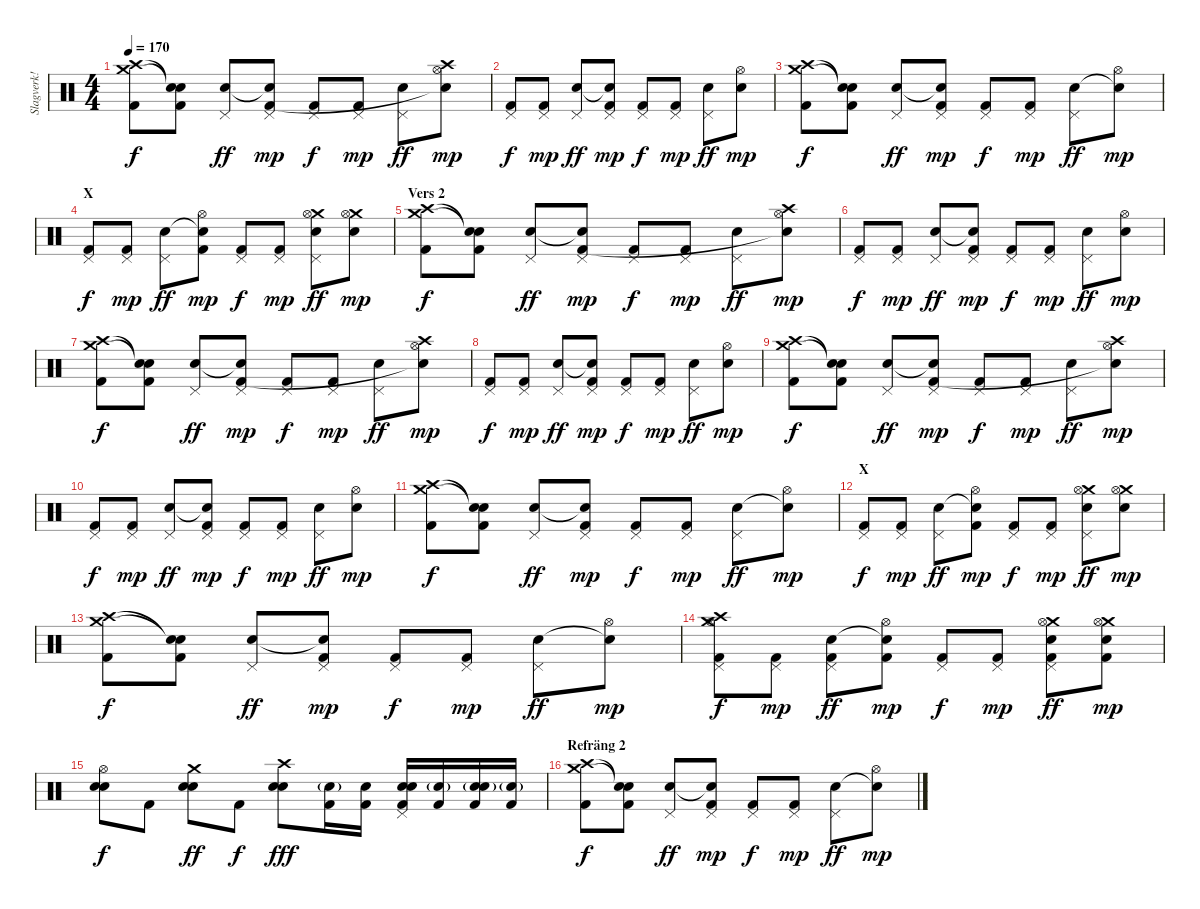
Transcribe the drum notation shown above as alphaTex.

\track ("Slagverk!" "Slagverk!") {instrument percussion}
\staff {score}
\articulation defaults
\ts (4 4)
\tempo 170
\clef neutral
\ks c
("Crash medium (hit)" "Crash high (hit)" "Kick (hit) 2").8{dy f} ("Snare (hit)"{t} "Snare (hit)"{t} "Kick (hit) 2").8 ("Pedal Hi-Hat (hit)" "Electric Snare (hit)").8{dy ff} ("Pedal Hi-Hat (hit)" "Snare (hit)"{t} "Kick (hit) 2").8{dy mp} ("Pedal Hi-Hat (hit)" "Kick (hit) 2").8{dy f} ("Pedal Hi-Hat (hit)" "Kick (hit) 2").8{dy mp} ("Pedal Hi-Hat (hit)" "Electric Snare (hit)").8{dy ff} ("Crash high (hit)" "Hi-Hat (open)" "Snare (hit)"{t}).8{dy mp} |
("Pedal Hi-Hat (hit)" "Kick (hit) 2").8{dy f} ("Pedal Hi-Hat (hit)" "Kick (hit) 2").8{dy mp} ("Pedal Hi-Hat (hit)" "Electric Snare (hit)").8{dy ff} ("Pedal Hi-Hat (hit)" "Snare (hit)"{t} "Kick (hit) 2").8{dy mp} ("Pedal Hi-Hat (hit)" "Kick (hit) 2").8{dy f} ("Pedal Hi-Hat (hit)" "Kick (hit) 2").8{dy mp} ("Pedal Hi-Hat (hit)" "Electric Snare (hit)").8{dy ff} ("Hi-Hat (open)" "Electric Snare (hit)").8{dy mp} |
("Crash medium (hit)" "Crash high (hit)" "Kick (hit) 2").8{dy f} ("Snare (hit)"{t} "Snare (hit)"{t} "Kick (hit) 2").8 ("Pedal Hi-Hat (hit)" "Electric Snare (hit)").8{dy ff} ("Pedal Hi-Hat (hit)" "Snare (hit)"{t} "Kick (hit) 2").8{dy mp} ("Pedal Hi-Hat (hit)" "Kick (hit) 2").8{dy f} ("Pedal Hi-Hat (hit)" "Kick (hit) 2").8{dy mp} ("Pedal Hi-Hat (hit)" "Electric Snare (hit)").8{dy ff} ("Hi-Hat (open)" "Snare (hit)"{t}).8{dy mp} |
\section ("" "X")
("Pedal Hi-Hat (hit)" "Kick (hit) 2").8{dy f} ("Pedal Hi-Hat (hit)" "Kick (hit) 2").8{dy mp} ("Pedal Hi-Hat (hit)" "Electric Snare (hit)").8{dy ff} ("Hi-Hat (open)" "Snare (hit)"{t} "Kick (hit) 2").8{dy mp} ("Pedal Hi-Hat (hit)" "Kick (hit) 2").8{dy f} ("Pedal Hi-Hat (hit)" "Kick (hit) 2").8{dy mp} ("Crash medium (hit)" "Hi-Hat (open)" "Pedal Hi-Hat (hit)" "Electric Snare (hit)").8{dy ff} ("Crash medium (hit)" "Hi-Hat (open)" "Electric Snare (hit)").8{dy mp} |
\section ("" "Vers 2")
("Crash medium (hit)" "Crash high (hit)" "Kick (hit) 2").8{dy f} ("Snare (hit)"{t} "Snare (hit)"{t} "Kick (hit) 2").8 ("Pedal Hi-Hat (hit)" "Electric Snare (hit)").8{dy ff} ("Pedal Hi-Hat (hit)" "Snare (hit)"{t} "Kick (hit) 2").8{dy mp} ("Pedal Hi-Hat (hit)" "Kick (hit) 2").8{dy f} ("Pedal Hi-Hat (hit)" "Kick (hit) 2").8{dy mp} ("Pedal Hi-Hat (hit)" "Electric Snare (hit)").8{dy ff} ("Crash high (hit)" "Hi-Hat (open)" "Snare (hit)"{t}).8{dy mp} |
("Pedal Hi-Hat (hit)" "Kick (hit) 2").8{dy f} ("Pedal Hi-Hat (hit)" "Kick (hit) 2").8{dy mp} ("Pedal Hi-Hat (hit)" "Electric Snare (hit)").8{dy ff} ("Pedal Hi-Hat (hit)" "Snare (hit)"{t} "Kick (hit) 2").8{dy mp} ("Pedal Hi-Hat (hit)" "Kick (hit) 2").8{dy f} ("Pedal Hi-Hat (hit)" "Kick (hit) 2").8{dy mp} ("Pedal Hi-Hat (hit)" "Electric Snare (hit)").8{dy ff} ("Hi-Hat (open)" "Electric Snare (hit)").8{dy mp} |
("Crash medium (hit)" "Crash high (hit)" "Kick (hit) 2").8{dy f} ("Snare (hit)"{t} "Snare (hit)"{t} "Kick (hit) 2").8 ("Pedal Hi-Hat (hit)" "Electric Snare (hit)").8{dy ff} ("Pedal Hi-Hat (hit)" "Snare (hit)"{t} "Kick (hit) 2").8{dy mp} ("Pedal Hi-Hat (hit)" "Kick (hit) 2").8{dy f} ("Pedal Hi-Hat (hit)" "Kick (hit) 2").8{dy mp} ("Pedal Hi-Hat (hit)" "Electric Snare (hit)").8{dy ff} ("Crash high (hit)" "Hi-Hat (open)" "Snare (hit)"{t}).8{dy mp} |
("Pedal Hi-Hat (hit)" "Kick (hit) 2").8{dy f} ("Pedal Hi-Hat (hit)" "Kick (hit) 2").8{dy mp} ("Pedal Hi-Hat (hit)" "Electric Snare (hit)").8{dy ff} ("Pedal Hi-Hat (hit)" "Snare (hit)"{t} "Kick (hit) 2").8{dy mp} ("Pedal Hi-Hat (hit)" "Kick (hit) 2").8{dy f} ("Pedal Hi-Hat (hit)" "Kick (hit) 2").8{dy mp} ("Pedal Hi-Hat (hit)" "Electric Snare (hit)").8{dy ff} ("Hi-Hat (open)" "Electric Snare (hit)").8{dy mp} |
("Crash medium (hit)" "Crash high (hit)" "Kick (hit) 2").8{dy f} ("Snare (hit)"{t} "Snare (hit)"{t} "Kick (hit) 2").8 ("Pedal Hi-Hat (hit)" "Electric Snare (hit)").8{dy ff} ("Pedal Hi-Hat (hit)" "Snare (hit)"{t} "Kick (hit) 2").8{dy mp} ("Pedal Hi-Hat (hit)" "Kick (hit) 2").8{dy f} ("Pedal Hi-Hat (hit)" "Kick (hit) 2").8{dy mp} ("Pedal Hi-Hat (hit)" "Electric Snare (hit)").8{dy ff} ("Crash high (hit)" "Hi-Hat (open)" "Snare (hit)"{t}).8{dy mp} |
("Pedal Hi-Hat (hit)" "Kick (hit) 2").8{dy f} ("Pedal Hi-Hat (hit)" "Kick (hit) 2").8{dy mp} ("Pedal Hi-Hat (hit)" "Electric Snare (hit)").8{dy ff} ("Pedal Hi-Hat (hit)" "Snare (hit)"{t} "Kick (hit) 2").8{dy mp} ("Pedal Hi-Hat (hit)" "Kick (hit) 2").8{dy f} ("Pedal Hi-Hat (hit)" "Kick (hit) 2").8{dy mp} ("Pedal Hi-Hat (hit)" "Electric Snare (hit)").8{dy ff} ("Hi-Hat (open)" "Electric Snare (hit)").8{dy mp} |
("Crash medium (hit)" "Crash high (hit)" "Kick (hit) 2").8{dy f} ("Snare (hit)"{t} "Snare (hit)"{t} "Kick (hit) 2").8 ("Pedal Hi-Hat (hit)" "Electric Snare (hit)").8{dy ff} ("Pedal Hi-Hat (hit)" "Snare (hit)"{t} "Kick (hit) 2").8{dy mp} ("Pedal Hi-Hat (hit)" "Kick (hit) 2").8{dy f} ("Pedal Hi-Hat (hit)" "Kick (hit) 2").8{dy mp} ("Pedal Hi-Hat (hit)" "Electric Snare (hit)").8{dy ff} ("Hi-Hat (open)" "Snare (hit)"{t}).8{dy mp} |
\section ("" "X")
("Pedal Hi-Hat (hit)" "Kick (hit) 2").8{dy f} ("Pedal Hi-Hat (hit)" "Kick (hit) 2").8{dy mp} ("Pedal Hi-Hat (hit)" "Electric Snare (hit)").8{dy ff} ("Hi-Hat (open)" "Snare (hit)"{t} "Kick (hit) 2").8{dy mp} ("Pedal Hi-Hat (hit)" "Kick (hit) 2").8{dy f} ("Pedal Hi-Hat (hit)" "Kick (hit) 2").8{dy mp} ("Crash medium (hit)" "Hi-Hat (open)" "Pedal Hi-Hat (hit)" "Electric Snare (hit)").8{dy ff} ("Crash medium (hit)" "Hi-Hat (open)" "Electric Snare (hit)").8{dy mp} |
("Crash medium (hit)" "Crash high (hit)" "Kick (hit) 2").8{dy f} ("Snare (hit)"{t} "Snare (hit)"{t} "Kick (hit) 2").8 ("Pedal Hi-Hat (hit)" "Electric Snare (hit)").8{dy ff} ("Pedal Hi-Hat (hit)" "Snare (hit)"{t} "Kick (hit) 2").8{dy mp} ("Pedal Hi-Hat (hit)" "Kick (hit) 2").8{dy f} ("Pedal Hi-Hat (hit)" "Kick (hit) 2").8{dy mp} ("Pedal Hi-Hat (hit)" "Electric Snare (hit)").8{dy ff} ("Hi-Hat (open)" "Snare (hit)"{t}).8{dy mp} |
("Crash medium (hit)" "Crash high (hit)" "Pedal Hi-Hat (hit)" "Hi-Hat (open)" "Kick (hit) 2").8{dy f} ("Pedal Hi-Hat (hit)" "Kick (hit) 2").8{dy mp} ("Pedal Hi-Hat (hit)" "Electric Snare (hit)" "Kick (hit) 2").8{dy ff} ("Hi-Hat (open)" "Snare (hit)"{t} "Kick (hit) 2").8{dy mp} ("Pedal Hi-Hat (hit)" "Kick (hit) 2").8{dy f} ("Pedal Hi-Hat (hit)" "Kick (hit) 2").8{dy mp} ("Crash medium (hit)" "Hi-Hat (open)" "Pedal Hi-Hat (hit)" "Electric Snare (hit)" "Kick (hit) 2").8{dy ff} ("Crash medium (hit)" "Hi-Hat (open)" "Electric Snare (hit)" "Kick (hit) 2").8{dy mp} |
("Hi-Hat (open)" "Snare (hit) 2" "Electric Snare (hit)").8{dy f} "Kick (hit) 2".8 ("Crash medium (hit)" "Snare (hit) 2" "Electric Snare (hit)").8{dy ff} "Kick (hit) 2".8{dy f} ("Crash high (hit)" "Snare (hit) 2" "Electric Snare (hit)").8{dy fff} ("Electric Snare (hit)"{g} "Kick (hit) 2").16 ("Electric Snare (hit)" "Kick (hit) 2").16 ("Pedal Hi-Hat (hit)" "Snare (hit) 2" "Electric Snare (hit)" "Kick (hit) 2").16 ("Electric Snare (hit)"{g} "Kick (hit) 2").16 ("Snare (hit) 2" "Electric Snare (hit)"{g} "Kick (hit) 2").16 ("Electric Snare (hit)"{g} "Kick (hit) 2").16 |
\section ("" "Refräng 2")
("Crash medium (hit)" "Crash high (hit)" "Kick (hit) 2").8{dy f} ("Snare (hit)"{t} "Snare (hit)"{t} "Kick (hit) 2").8 ("Pedal Hi-Hat (hit)" "Electric Snare (hit)").8{dy ff} ("Pedal Hi-Hat (hit)" "Snare (hit)"{t} "Kick (hit) 2").8{dy mp} ("Pedal Hi-Hat (hit)" "Kick (hit) 2").8{dy f} ("Pedal Hi-Hat (hit)" "Kick (hit) 2").8{dy mp} ("Pedal Hi-Hat (hit)" "Electric Snare (hit)").8{dy ff} ("Hi-Hat (open)" "Snare (hit)"{t}).8{dy mp}
